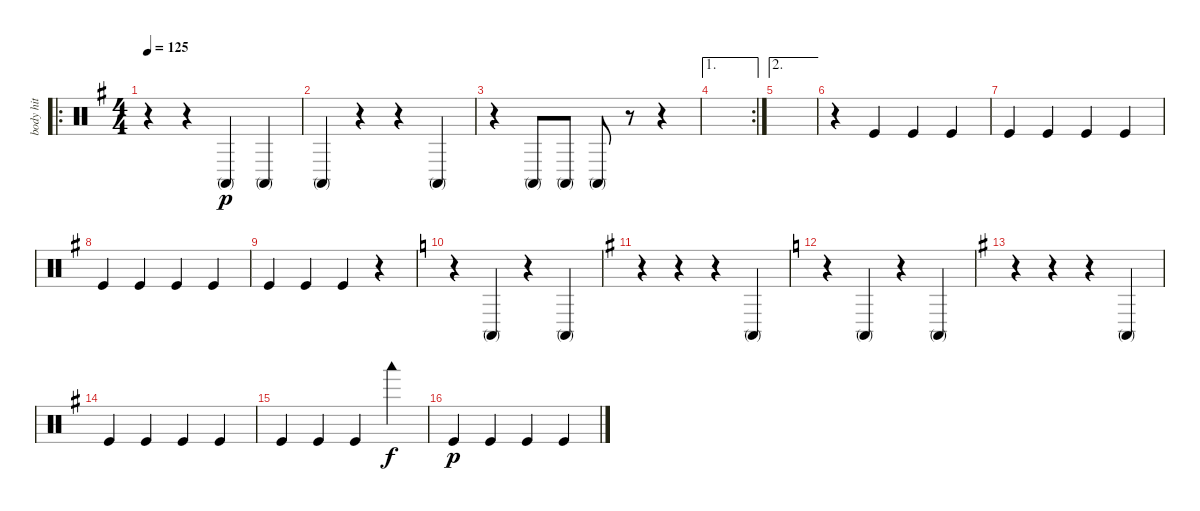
\track ("body hit" "body hit") {instrument percussion}
\staff {score}
\articulation defaults
\ro
\ts (4 4)
\tempo 125
\clef neutral
\ks g
r.4{dy p} r.4 "Conga high (mute)".4 "Conga high (mute)".4 |
"Conga high (mute)".4 r.4 r.4 "Conga high (mute)".4 |
r.4 "Conga high (mute)".8 "Conga high (mute)".8 "Conga high (mute)".8 r.8 r.4 |
\ae 1
\rc 2
|
\ae 2
|
r.4 "Kick (hit)".4 "Kick (hit)".4 "Kick (hit)".4 |
"Kick (hit)".4 "Kick (hit)".4 "Kick (hit)".4 "Kick (hit)".4 |
"Kick (hit)".4 "Kick (hit)".4 "Kick (hit)".4 "Kick (hit)".4 |
"Kick (hit)".4 "Kick (hit)".4 "Kick (hit)".4 r.4 |
\ks c
r.4 "Conga high (mute)".4 r.4 "Conga high (mute)".4 |
\ks g
r.4 r.4 r.4 "Conga high (mute)".4 |
\ks c
r.4 "Conga high (mute)".4 r.4 "Conga high (mute)".4 |
\ks g
r.4 r.4 r.4 "Conga high (mute)".4 |
"Kick (hit)".4 "Kick (hit)".4 "Kick (hit)".4 "Kick (hit)".4 |
"Kick (hit)".4 "Kick (hit)".4 "Kick (hit)".4 "Woodblock low (hit)".4{dy f} |
"Kick (hit)".4{dy p} "Kick (hit)".4 "Kick (hit)".4 "Kick (hit)".4
